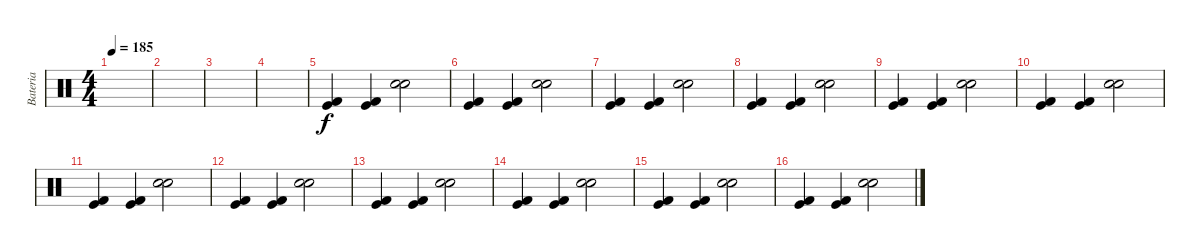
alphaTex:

\track ("Bateria" "Bateria") {instrument percussion}
\staff {score}
\articulation defaults
\ts (4 4)
\tempo 185
\clef neutral
\ks c
|
|
|
|
("Kick (hit) 2" "Kick (hit)").4 ("Kick (hit) 2" "Kick (hit)").4 ("Electric Snare (hit)" "Snare (hit) 2").2 |
("Kick (hit) 2" "Kick (hit)").4 ("Kick (hit) 2" "Kick (hit)").4 ("Electric Snare (hit)" "Snare (hit) 2").2 |
("Kick (hit) 2" "Kick (hit)").4 ("Kick (hit) 2" "Kick (hit)").4 ("Electric Snare (hit)" "Snare (hit) 2").2 |
("Kick (hit) 2" "Kick (hit)").4 ("Kick (hit) 2" "Kick (hit)").4 ("Electric Snare (hit)" "Snare (hit) 2").2 |
("Kick (hit) 2" "Kick (hit)").4 ("Kick (hit) 2" "Kick (hit)").4 ("Electric Snare (hit)" "Snare (hit) 2").2 |
("Kick (hit) 2" "Kick (hit)").4 ("Kick (hit) 2" "Kick (hit)").4 ("Electric Snare (hit)" "Snare (hit) 2").2 |
("Kick (hit) 2" "Kick (hit)").4 ("Kick (hit) 2" "Kick (hit)").4 ("Electric Snare (hit)" "Snare (hit) 2").2 |
("Kick (hit) 2" "Kick (hit)").4 ("Kick (hit) 2" "Kick (hit)").4 ("Electric Snare (hit)" "Snare (hit) 2").2 |
("Kick (hit) 2" "Kick (hit)").4 ("Kick (hit) 2" "Kick (hit)").4 ("Electric Snare (hit)" "Snare (hit) 2").2 |
("Kick (hit) 2" "Kick (hit)").4 ("Kick (hit) 2" "Kick (hit)").4 ("Electric Snare (hit)" "Snare (hit) 2").2 |
("Kick (hit) 2" "Kick (hit)").4 ("Kick (hit) 2" "Kick (hit)").4 ("Electric Snare (hit)" "Snare (hit) 2").2 |
("Kick (hit) 2" "Kick (hit)").4 ("Kick (hit) 2" "Kick (hit)").4 ("Electric Snare (hit)" "Snare (hit) 2").2
